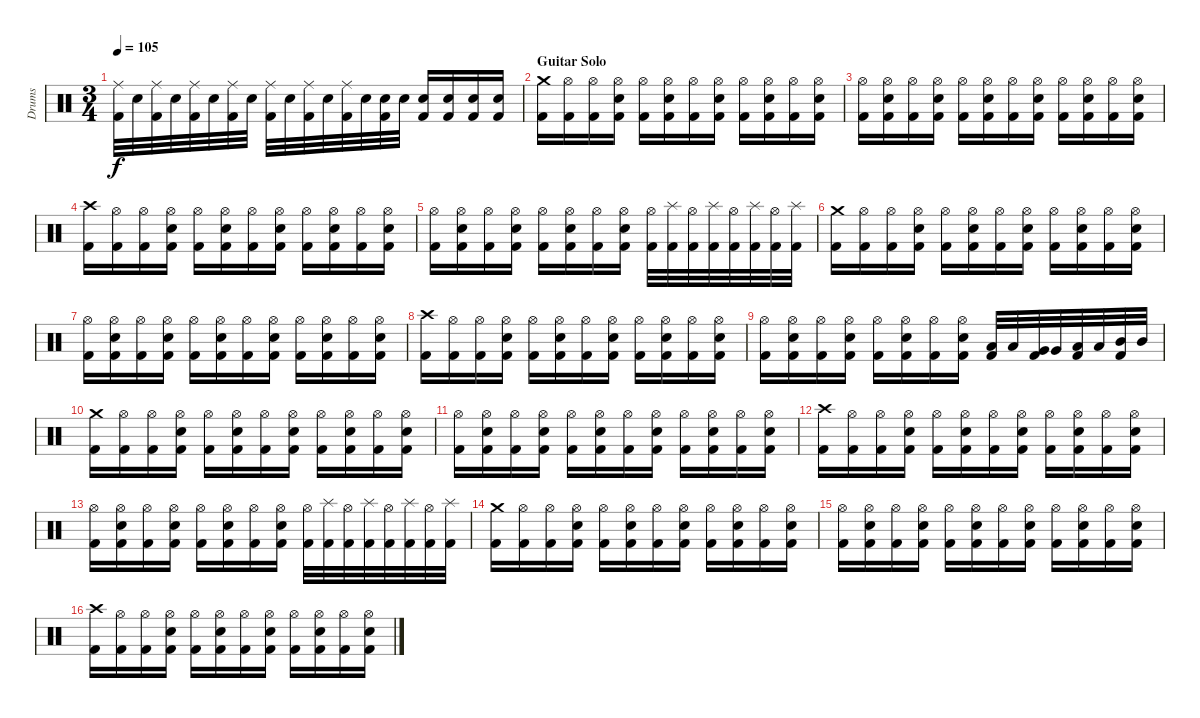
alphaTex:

\track ("Drums" "Drums") {instrument percussion}
\staff {score}
\articulation defaults
\ts (3 4)
\tempo 105
\clef neutral
\ks c
("Kick (hit) 2" "Ride (middle)").32{dy f} "Electric Snare (hit)".32 ("Kick (hit) 2" "Ride (middle)").32 "Electric Snare (hit)".32 ("Kick (hit) 2" "Ride (middle)").32 "Electric Snare (hit)".32 ("Kick (hit) 2" "Ride (middle)").32 "Electric Snare (hit)".32 ("Kick (hit) 2" "Ride (middle)").32 "Electric Snare (hit)".32 ("Kick (hit) 2" "Ride (middle)").32 "Electric Snare (hit)".32 ("Kick (hit) 2" "Ride (middle)").32 "Electric Snare (hit)".32 ("Kick (hit) 2" "Electric Snare (hit)").32 "Electric Snare (hit)".32 ("Kick (hit) 2" "Electric Snare (hit)").16 ("Kick (hit) 2" "Electric Snare (hit)").16 ("Kick (hit) 2" "Electric Snare (hit)").16 ("Kick (hit) 2" "Electric Snare (hit)").16 |
\section ("" "Guitar Solo")
("Kick (hit) 2" "Crash medium (hit)").16 ("Kick (hit) 2" "Hi-Hat (open)").16 ("Kick (hit) 2" "Hi-Hat (open)").16 ("Kick (hit) 2" "Electric Snare (hit)" "Hi-Hat (open)").16 ("Kick (hit) 2" "Hi-Hat (open)").16 ("Kick (hit) 2" "Electric Snare (hit)" "Hi-Hat (open)").16 ("Kick (hit) 2" "Hi-Hat (open)").16 ("Kick (hit) 2" "Electric Snare (hit)" "Hi-Hat (open)").16 ("Kick (hit) 2" "Hi-Hat (open)").16 ("Kick (hit) 2" "Electric Snare (hit)" "Hi-Hat (open)").16 ("Kick (hit) 2" "Hi-Hat (open)").16 ("Kick (hit) 2" "Electric Snare (hit)" "Hi-Hat (open)").16 |
("Kick (hit) 2" "Hi-Hat (open)").16 ("Kick (hit) 2" "Electric Snare (hit)" "Hi-Hat (open)").16 ("Kick (hit) 2" "Hi-Hat (open)").16 ("Kick (hit) 2" "Electric Snare (hit)" "Hi-Hat (open)").16 ("Kick (hit) 2" "Hi-Hat (open)").16 ("Kick (hit) 2" "Electric Snare (hit)" "Hi-Hat (open)").16 ("Kick (hit) 2" "Hi-Hat (open)").16 ("Kick (hit) 2" "Electric Snare (hit)" "Hi-Hat (open)").16 ("Kick (hit) 2" "Hi-Hat (open)").16 ("Kick (hit) 2" "Electric Snare (hit)" "Hi-Hat (open)").16 ("Kick (hit) 2" "Hi-Hat (open)").16 ("Kick (hit) 2" "Electric Snare (hit)" "Hi-Hat (open)").16 |
("Kick (hit) 2" "Crash high (hit)").16 ("Kick (hit) 2" "Hi-Hat (open)").16 ("Kick (hit) 2" "Hi-Hat (open)").16 ("Kick (hit) 2" "Electric Snare (hit)" "Hi-Hat (open)").16 ("Kick (hit) 2" "Hi-Hat (open)").16 ("Kick (hit) 2" "Electric Snare (hit)" "Hi-Hat (open)").16 ("Kick (hit) 2" "Hi-Hat (open)").16 ("Kick (hit) 2" "Electric Snare (hit)" "Hi-Hat (open)").16 ("Kick (hit) 2" "Hi-Hat (open)").16 ("Kick (hit) 2" "Electric Snare (hit)" "Hi-Hat (open)").16 ("Kick (hit) 2" "Hi-Hat (open)").16 ("Kick (hit) 2" "Electric Snare (hit)" "Hi-Hat (open)").16 |
("Kick (hit) 2" "Hi-Hat (open)").16 ("Kick (hit) 2" "Electric Snare (hit)" "Hi-Hat (open)").16 ("Kick (hit) 2" "Hi-Hat (open)").16 ("Kick (hit) 2" "Electric Snare (hit)" "Hi-Hat (open)").16 ("Kick (hit) 2" "Hi-Hat (open)").16 ("Kick (hit) 2" "Electric Snare (hit)" "Hi-Hat (open)").16 ("Kick (hit) 2" "Hi-Hat (open)").16 ("Kick (hit) 2" "Electric Snare (hit)" "Hi-Hat (open)").16 ("Kick (hit) 2" "Hi-Hat (open)").32 ("Kick (hit) 2" "Splash (hit)").32 ("Kick (hit) 2" "Hi-Hat (open)").32 ("Kick (hit) 2" "Splash (hit)").32 ("Kick (hit) 2" "Hi-Hat (open)").32 ("Kick (hit) 2" "Splash (hit)").32 ("Kick (hit) 2" "Hi-Hat (open)").32 ("Kick (hit) 2" "Splash (hit)").32 |
("Kick (hit) 2" "Crash medium (hit)").16 ("Kick (hit) 2" "Hi-Hat (open)").16 ("Kick (hit) 2" "Hi-Hat (open)").16 ("Kick (hit) 2" "Electric Snare (hit)" "Hi-Hat (open)").16 ("Kick (hit) 2" "Hi-Hat (open)").16 ("Kick (hit) 2" "Electric Snare (hit)" "Hi-Hat (open)").16 ("Kick (hit) 2" "Hi-Hat (open)").16 ("Kick (hit) 2" "Electric Snare (hit)" "Hi-Hat (open)").16 ("Kick (hit) 2" "Hi-Hat (open)").16 ("Kick (hit) 2" "Electric Snare (hit)" "Hi-Hat (open)").16 ("Kick (hit) 2" "Hi-Hat (open)").16 ("Kick (hit) 2" "Electric Snare (hit)" "Hi-Hat (open)").16 |
("Kick (hit) 2" "Hi-Hat (open)").16 ("Kick (hit) 2" "Electric Snare (hit)" "Hi-Hat (open)").16 ("Kick (hit) 2" "Hi-Hat (open)").16 ("Kick (hit) 2" "Electric Snare (hit)" "Hi-Hat (open)").16 ("Kick (hit) 2" "Hi-Hat (open)").16 ("Kick (hit) 2" "Electric Snare (hit)" "Hi-Hat (open)").16 ("Kick (hit) 2" "Hi-Hat (open)").16 ("Kick (hit) 2" "Electric Snare (hit)" "Hi-Hat (open)").16 ("Kick (hit) 2" "Hi-Hat (open)").16 ("Kick (hit) 2" "Electric Snare (hit)" "Hi-Hat (open)").16 ("Kick (hit) 2" "Hi-Hat (open)").16 ("Kick (hit) 2" "Electric Snare (hit)" "Hi-Hat (open)").16 |
("Kick (hit) 2" "Crash high (hit)").16 ("Kick (hit) 2" "Hi-Hat (open)").16 ("Kick (hit) 2" "Hi-Hat (open)").16 ("Kick (hit) 2" "Electric Snare (hit)" "Hi-Hat (open)").16 ("Kick (hit) 2" "Hi-Hat (open)").16 ("Kick (hit) 2" "Electric Snare (hit)" "Hi-Hat (open)").16 ("Kick (hit) 2" "Hi-Hat (open)").16 ("Kick (hit) 2" "Electric Snare (hit)" "Hi-Hat (open)").16 ("Kick (hit) 2" "Hi-Hat (open)").16 ("Kick (hit) 2" "Electric Snare (hit)" "Hi-Hat (open)").16 ("Kick (hit) 2" "Hi-Hat (open)").16 ("Kick (hit) 2" "Electric Snare (hit)" "Hi-Hat (open)").16 |
("Kick (hit) 2" "Hi-Hat (open)").16 ("Kick (hit) 2" "Electric Snare (hit)" "Hi-Hat (open)").16 ("Kick (hit) 2" "Hi-Hat (open)").16 ("Kick (hit) 2" "Electric Snare (hit)" "Hi-Hat (open)").16 ("Kick (hit) 2" "Hi-Hat (open)").16 ("Kick (hit) 2" "Electric Snare (hit)" "Hi-Hat (open)").16 ("Kick (hit) 2" "Hi-Hat (open)").16 ("Kick (hit) 2" "Electric Snare (hit)" "Hi-Hat (open)").16 ("Kick (hit) 2" "Low Tom (hit)").32 "Low Tom (hit)".32 ("Kick (hit) 2" "Very Low Tom (hit)").32 "Very Low Tom (hit)".32 ("Kick (hit) 2" "Low Tom (hit)").32 "Low Tom (hit)".32 ("Kick (hit) 2" "Mid Tom (hit)").32 "Mid Tom (hit)".32 |
("Kick (hit) 2" "Crash medium (hit)").16 ("Kick (hit) 2" "Hi-Hat (open)").16 ("Kick (hit) 2" "Hi-Hat (open)").16 ("Kick (hit) 2" "Electric Snare (hit)" "Hi-Hat (open)").16 ("Kick (hit) 2" "Hi-Hat (open)").16 ("Kick (hit) 2" "Electric Snare (hit)" "Hi-Hat (open)").16 ("Kick (hit) 2" "Hi-Hat (open)").16 ("Kick (hit) 2" "Electric Snare (hit)" "Hi-Hat (open)").16 ("Kick (hit) 2" "Hi-Hat (open)").16 ("Kick (hit) 2" "Electric Snare (hit)" "Hi-Hat (open)").16 ("Kick (hit) 2" "Hi-Hat (open)").16 ("Kick (hit) 2" "Electric Snare (hit)" "Hi-Hat (open)").16 |
("Kick (hit) 2" "Hi-Hat (open)").16 ("Kick (hit) 2" "Electric Snare (hit)" "Hi-Hat (open)").16 ("Kick (hit) 2" "Hi-Hat (open)").16 ("Kick (hit) 2" "Electric Snare (hit)" "Hi-Hat (open)").16 ("Kick (hit) 2" "Hi-Hat (open)").16 ("Kick (hit) 2" "Electric Snare (hit)" "Hi-Hat (open)").16 ("Kick (hit) 2" "Hi-Hat (open)").16 ("Kick (hit) 2" "Electric Snare (hit)" "Hi-Hat (open)").16 ("Kick (hit) 2" "Hi-Hat (open)").16 ("Kick (hit) 2" "Electric Snare (hit)" "Hi-Hat (open)").16 ("Kick (hit) 2" "Hi-Hat (open)").16 ("Kick (hit) 2" "Electric Snare (hit)" "Hi-Hat (open)").16 |
("Kick (hit) 2" "Crash high (hit)").16 ("Kick (hit) 2" "Hi-Hat (open)").16 ("Kick (hit) 2" "Hi-Hat (open)").16 ("Kick (hit) 2" "Electric Snare (hit)" "Hi-Hat (open)").16 ("Kick (hit) 2" "Hi-Hat (open)").16 ("Kick (hit) 2" "Electric Snare (hit)" "Hi-Hat (open)").16 ("Kick (hit) 2" "Hi-Hat (open)").16 ("Kick (hit) 2" "Electric Snare (hit)" "Hi-Hat (open)").16 ("Kick (hit) 2" "Hi-Hat (open)").16 ("Kick (hit) 2" "Electric Snare (hit)" "Hi-Hat (open)").16 ("Kick (hit) 2" "Hi-Hat (open)").16 ("Kick (hit) 2" "Electric Snare (hit)" "Hi-Hat (open)").16 |
("Kick (hit) 2" "Hi-Hat (open)").16 ("Kick (hit) 2" "Electric Snare (hit)" "Hi-Hat (open)").16 ("Kick (hit) 2" "Hi-Hat (open)").16 ("Kick (hit) 2" "Electric Snare (hit)" "Hi-Hat (open)").16 ("Kick (hit) 2" "Hi-Hat (open)").16 ("Kick (hit) 2" "Electric Snare (hit)" "Hi-Hat (open)").16 ("Kick (hit) 2" "Hi-Hat (open)").16 ("Kick (hit) 2" "Electric Snare (hit)" "Hi-Hat (open)").16 ("Kick (hit) 2" "Hi-Hat (open)").32 ("Kick (hit) 2" "Splash (hit)").32 ("Kick (hit) 2" "Hi-Hat (open)").32 ("Kick (hit) 2" "Splash (hit)").32 ("Kick (hit) 2" "Hi-Hat (open)").32 ("Kick (hit) 2" "Splash (hit)").32 ("Kick (hit) 2" "Hi-Hat (open)").32 ("Kick (hit) 2" "Splash (hit)").32 |
("Kick (hit) 2" "Crash medium (hit)").16 ("Kick (hit) 2" "Hi-Hat (open)").16 ("Kick (hit) 2" "Hi-Hat (open)").16 ("Kick (hit) 2" "Electric Snare (hit)" "Hi-Hat (open)").16 ("Kick (hit) 2" "Hi-Hat (open)").16 ("Kick (hit) 2" "Electric Snare (hit)" "Hi-Hat (open)").16 ("Kick (hit) 2" "Hi-Hat (open)").16 ("Kick (hit) 2" "Electric Snare (hit)" "Hi-Hat (open)").16 ("Kick (hit) 2" "Hi-Hat (open)").16 ("Kick (hit) 2" "Electric Snare (hit)" "Hi-Hat (open)").16 ("Kick (hit) 2" "Hi-Hat (open)").16 ("Kick (hit) 2" "Electric Snare (hit)" "Hi-Hat (open)").16 |
("Kick (hit) 2" "Hi-Hat (open)").16 ("Kick (hit) 2" "Electric Snare (hit)" "Hi-Hat (open)").16 ("Kick (hit) 2" "Hi-Hat (open)").16 ("Kick (hit) 2" "Electric Snare (hit)" "Hi-Hat (open)").16 ("Kick (hit) 2" "Hi-Hat (open)").16 ("Kick (hit) 2" "Electric Snare (hit)" "Hi-Hat (open)").16 ("Kick (hit) 2" "Hi-Hat (open)").16 ("Kick (hit) 2" "Electric Snare (hit)" "Hi-Hat (open)").16 ("Kick (hit) 2" "Hi-Hat (open)").16 ("Kick (hit) 2" "Electric Snare (hit)" "Hi-Hat (open)").16 ("Kick (hit) 2" "Hi-Hat (open)").16 ("Kick (hit) 2" "Electric Snare (hit)" "Hi-Hat (open)").16 |
("Kick (hit) 2" "Crash high (hit)").16 ("Kick (hit) 2" "Hi-Hat (open)").16 ("Kick (hit) 2" "Hi-Hat (open)").16 ("Kick (hit) 2" "Electric Snare (hit)" "Hi-Hat (open)").16 ("Kick (hit) 2" "Hi-Hat (open)").16 ("Kick (hit) 2" "Electric Snare (hit)" "Hi-Hat (open)").16 ("Kick (hit) 2" "Hi-Hat (open)").16 ("Kick (hit) 2" "Electric Snare (hit)" "Hi-Hat (open)").16 ("Kick (hit) 2" "Hi-Hat (open)").16 ("Kick (hit) 2" "Electric Snare (hit)" "Hi-Hat (open)").16 ("Kick (hit) 2" "Hi-Hat (open)").16 ("Kick (hit) 2" "Electric Snare (hit)" "Hi-Hat (open)").16
